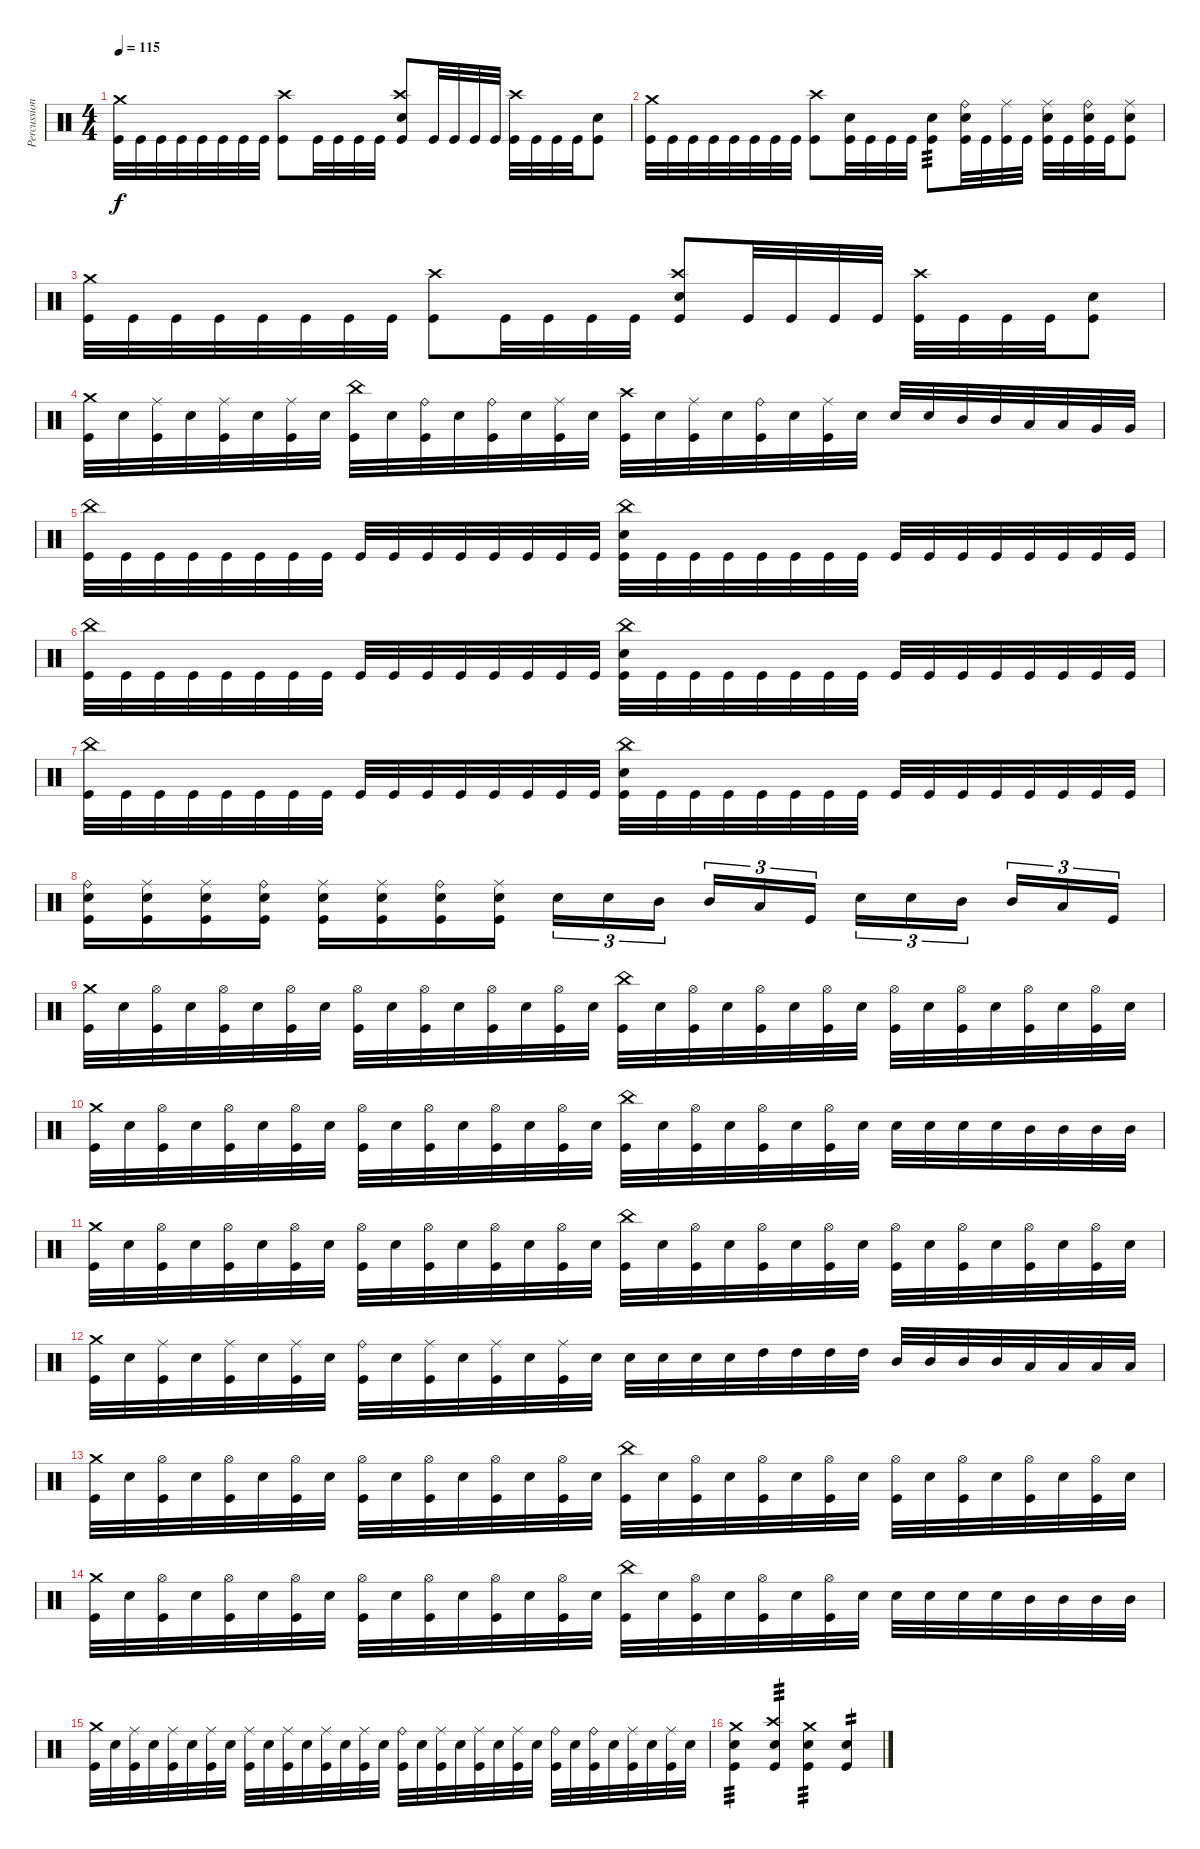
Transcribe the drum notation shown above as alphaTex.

\track ("Percussion" "Percussion") {instrument percussion}
\staff {score}
\articulation defaults
\ts (4 4)
\tempo 115
\clef neutral
\ks c
("Crash medium (hit)" "Kick (hit)").32{dy f} "Kick (hit)".32 "Kick (hit)".32 "Kick (hit)".32 "Kick (hit)".32 "Kick (hit)".32 "Kick (hit)".32 "Kick (hit)".32 ("Crash high (hit)" "Kick (hit)").8 "Kick (hit)".32 "Kick (hit)".32 "Kick (hit)".32 "Kick (hit)".32 ("Crash high (hit)" "Electric Snare (hit)" "Kick (hit)").8 "Kick (hit)".32 "Kick (hit)".32 "Kick (hit)".32 "Kick (hit)".32 ("Crash high (hit)" "Kick (hit)").32 "Kick (hit)".32 "Kick (hit)".32 "Kick (hit)".32 ("Electric Snare (hit)" "Kick (hit)").8 |
("Crash medium (hit)" "Kick (hit)").32 "Kick (hit)".32 "Kick (hit)".32 "Kick (hit)".32 "Kick (hit)".32 "Kick (hit)".32 "Kick (hit)".32 "Kick (hit)".32 ("Crash high (hit)" "Kick (hit)").8 ("Electric Snare (hit)" "Kick (hit)").32 "Kick (hit)".32 "Kick (hit)".32 "Kick (hit)".32 ("Electric Snare (hit)" "Kick (hit)").8{tp 3} ("Ride (bell)" "Electric Snare (hit)" "Kick (hit)").32 "Kick (hit)".32 ("Ride (middle)" "Kick (hit)").32 "Kick (hit)".32 ("Ride (middle)" "Electric Snare (hit)" "Kick (hit)").32 "Kick (hit)".32 ("Ride (bell)" "Electric Snare (hit)" "Kick (hit)").32 "Kick (hit)".32 ("Ride (middle)" "Electric Snare (hit)" "Kick (hit)").8 |
("Crash medium (hit)" "Kick (hit)").32 "Kick (hit)".32 "Kick (hit)".32 "Kick (hit)".32 "Kick (hit)".32 "Kick (hit)".32 "Kick (hit)".32 "Kick (hit)".32 ("Crash high (hit)" "Kick (hit)").8 "Kick (hit)".32 "Kick (hit)".32 "Kick (hit)".32 "Kick (hit)".32 ("Crash high (hit)" "Electric Snare (hit)" "Kick (hit)").8 "Kick (hit)".32 "Kick (hit)".32 "Kick (hit)".32 "Kick (hit)".32 ("Crash high (hit)" "Kick (hit)").32 "Kick (hit)".32 "Kick (hit)".32 "Kick (hit)".32 ("Electric Snare (hit)" "Kick (hit)").8 |
("Crash medium (hit)" "Kick (hit)").32 "Electric Snare (hit)".32 ("Ride (middle)" "Kick (hit)").32 "Electric Snare (hit)".32 ("Ride (middle)" "Kick (hit)").32 "Electric Snare (hit)".32 ("Ride (middle)" "Kick (hit)").32 "Electric Snare (hit)".32 ("China (hit)" "Kick (hit)").32 "Electric Snare (hit)".32 ("Ride (bell)" "Kick (hit)").32 "Electric Snare (hit)".32 ("Ride (bell)" "Kick (hit)").32 "Electric Snare (hit)".32 ("Ride (middle)" "Kick (hit)").32 "Electric Snare (hit)".32 ("Crash high (hit)" "Kick (hit)").32 "Electric Snare (hit)".32 ("Ride (middle)" "Kick (hit)").32 "Electric Snare (hit)".32 ("Ride (bell)" "Kick (hit)").32 "Electric Snare (hit)".32 ("Ride (middle)" "Kick (hit)").32 "Electric Snare (hit)".32 "Electric Snare (hit)".32 "Electric Snare (hit)".32 "Mid Tom (hit)".32 "Mid Tom (hit)".32 "Low Tom (hit)".32 "Low Tom (hit)".32 "Very Low Tom (hit)".32 "Very Low Tom (hit)".32 |
("China (hit)" "Kick (hit)").32 "Kick (hit)".32 "Kick (hit)".32 "Kick (hit)".32 "Kick (hit)".32 "Kick (hit)".32 "Kick (hit)".32 "Kick (hit)".32 "Kick (hit)".32 "Kick (hit)".32 "Kick (hit)".32 "Kick (hit)".32 "Kick (hit)".32 "Kick (hit)".32 "Kick (hit)".32 "Kick (hit)".32 ("China (hit)" "Electric Snare (hit)" "Kick (hit)").32 "Kick (hit)".32 "Kick (hit)".32 "Kick (hit)".32 "Kick (hit)".32 "Kick (hit)".32 "Kick (hit)".32 "Kick (hit)".32 "Kick (hit)".32 "Kick (hit)".32 "Kick (hit)".32 "Kick (hit)".32 "Kick (hit)".32 "Kick (hit)".32 "Kick (hit)".32 "Kick (hit)".32 |
("China (hit)" "Kick (hit)").32 "Kick (hit)".32 "Kick (hit)".32 "Kick (hit)".32 "Kick (hit)".32 "Kick (hit)".32 "Kick (hit)".32 "Kick (hit)".32 "Kick (hit)".32 "Kick (hit)".32 "Kick (hit)".32 "Kick (hit)".32 "Kick (hit)".32 "Kick (hit)".32 "Kick (hit)".32 "Kick (hit)".32 ("China (hit)" "Electric Snare (hit)" "Kick (hit)").32 "Kick (hit)".32 "Kick (hit)".32 "Kick (hit)".32 "Kick (hit)".32 "Kick (hit)".32 "Kick (hit)".32 "Kick (hit)".32 "Kick (hit)".32 "Kick (hit)".32 "Kick (hit)".32 "Kick (hit)".32 "Kick (hit)".32 "Kick (hit)".32 "Kick (hit)".32 "Kick (hit)".32 |
("China (hit)" "Kick (hit)").32 "Kick (hit)".32 "Kick (hit)".32 "Kick (hit)".32 "Kick (hit)".32 "Kick (hit)".32 "Kick (hit)".32 "Kick (hit)".32 "Kick (hit)".32 "Kick (hit)".32 "Kick (hit)".32 "Kick (hit)".32 "Kick (hit)".32 "Kick (hit)".32 "Kick (hit)".32 "Kick (hit)".32 ("China (hit)" "Electric Snare (hit)" "Kick (hit)").32 "Kick (hit)".32 "Kick (hit)".32 "Kick (hit)".32 "Kick (hit)".32 "Kick (hit)".32 "Kick (hit)".32 "Kick (hit)".32 "Kick (hit)".32 "Kick (hit)".32 "Kick (hit)".32 "Kick (hit)".32 "Kick (hit)".32 "Kick (hit)".32 "Kick (hit)".32 "Kick (hit)".32 |
("Ride (bell)" "Electric Snare (hit)" "Kick (hit)").16 ("Ride (middle)" "Electric Snare (hit)" "Kick (hit)").16 ("Ride (middle)" "Electric Snare (hit)" "Kick (hit)").16 ("Ride (bell)" "Electric Snare (hit)" "Kick (hit)").16 ("Ride (middle)" "Electric Snare (hit)" "Kick (hit)").16 ("Ride (middle)" "Electric Snare (hit)" "Kick (hit)").16 ("Ride (bell)" "Electric Snare (hit)" "Kick (hit)").16 ("Ride (middle)" "Electric Snare (hit)" "Kick (hit)").16 "Electric Snare (hit)".16{tu (3 2)} "Electric Snare (hit)".16{tu (3 2)} "Mid Tom (hit)".16{tu (3 2) beam splitsecondary} "Mid Tom (hit)".16{tu (3 2)} "Low Tom (hit)".16{tu (3 2)} "Kick (hit)".16{tu (3 2)} "Electric Snare (hit)".16{tu (3 2)} "Electric Snare (hit)".16{tu (3 2)} "Mid Tom (hit)".16{tu (3 2) beam splitsecondary} "Mid Tom (hit)".16{tu (3 2)} "Low Tom (hit)".16{tu (3 2)} "Kick (hit)".16{tu (3 2)} |
("Crash medium (hit)" "Kick (hit)").32 "Electric Snare (hit)".32 ("Hi-Hat (open)" "Kick (hit)").32 "Electric Snare (hit)".32 ("Hi-Hat (open)" "Kick (hit)").32 "Electric Snare (hit)".32 ("Hi-Hat (open)" "Kick (hit)").32 "Electric Snare (hit)".32 ("Hi-Hat (open)" "Kick (hit)").32 "Electric Snare (hit)".32 ("Hi-Hat (open)" "Kick (hit)").32 "Electric Snare (hit)".32 ("Hi-Hat (open)" "Kick (hit)").32 "Electric Snare (hit)".32 ("Hi-Hat (open)" "Kick (hit)").32 "Electric Snare (hit)".32 ("China (hit)" "Kick (hit)").32 "Electric Snare (hit)".32 ("Hi-Hat (open)" "Kick (hit)").32 "Electric Snare (hit)".32 ("Hi-Hat (open)" "Kick (hit)").32 "Electric Snare (hit)".32 ("Hi-Hat (open)" "Kick (hit)").32 "Electric Snare (hit)".32 ("Hi-Hat (open)" "Kick (hit)").32 "Electric Snare (hit)".32 ("Hi-Hat (open)" "Kick (hit)").32 "Electric Snare (hit)".32 ("Hi-Hat (open)" "Kick (hit)").32 "Electric Snare (hit)".32 ("Hi-Hat (open)" "Kick (hit)").32 "Electric Snare (hit)".32 |
("Crash medium (hit)" "Kick (hit)").32 "Electric Snare (hit)".32 ("Hi-Hat (open)" "Kick (hit)").32 "Electric Snare (hit)".32 ("Hi-Hat (open)" "Kick (hit)").32 "Electric Snare (hit)".32 ("Hi-Hat (open)" "Kick (hit)").32 "Electric Snare (hit)".32 ("Hi-Hat (open)" "Kick (hit)").32 "Electric Snare (hit)".32 ("Hi-Hat (open)" "Kick (hit)").32 "Electric Snare (hit)".32 ("Hi-Hat (open)" "Kick (hit)").32 "Electric Snare (hit)".32 ("Hi-Hat (open)" "Kick (hit)").32 "Electric Snare (hit)".32 ("China (hit)" "Kick (hit)").32 "Electric Snare (hit)".32 ("Hi-Hat (open)" "Kick (hit)").32 "Electric Snare (hit)".32 ("Hi-Hat (open)" "Kick (hit)").32 "Electric Snare (hit)".32 ("Hi-Hat (open)" "Kick (hit)").32 "Electric Snare (hit)".32 "Electric Snare (hit)".32 "Electric Snare (hit)".32 "Electric Snare (hit)".32 "Electric Snare (hit)".32 "Mid Tom (hit)".32 "Mid Tom (hit)".32 "Mid Tom (hit)".32 "Mid Tom (hit)".32 |
("Crash medium (hit)" "Kick (hit)").32 "Electric Snare (hit)".32 ("Hi-Hat (open)" "Kick (hit)").32 "Electric Snare (hit)".32 ("Hi-Hat (open)" "Kick (hit)").32 "Electric Snare (hit)".32 ("Hi-Hat (open)" "Kick (hit)").32 "Electric Snare (hit)".32 ("Hi-Hat (open)" "Kick (hit)").32 "Electric Snare (hit)".32 ("Hi-Hat (open)" "Kick (hit)").32 "Electric Snare (hit)".32 ("Hi-Hat (open)" "Kick (hit)").32 "Electric Snare (hit)".32 ("Hi-Hat (open)" "Kick (hit)").32 "Electric Snare (hit)".32 ("China (hit)" "Kick (hit)").32 "Electric Snare (hit)".32 ("Hi-Hat (open)" "Kick (hit)").32 "Electric Snare (hit)".32 ("Hi-Hat (open)" "Kick (hit)").32 "Electric Snare (hit)".32 ("Hi-Hat (open)" "Kick (hit)").32 "Electric Snare (hit)".32 ("Hi-Hat (open)" "Kick (hit)").32 "Electric Snare (hit)".32 ("Hi-Hat (open)" "Kick (hit)").32 "Electric Snare (hit)".32 ("Hi-Hat (open)" "Kick (hit)").32 "Electric Snare (hit)".32 ("Hi-Hat (open)" "Kick (hit)").32 "Electric Snare (hit)".32 |
("Crash medium (hit)" "Kick (hit)").32 "Electric Snare (hit)".32 ("Ride (middle)" "Kick (hit)").32 "Electric Snare (hit)".32 ("Ride (middle)" "Kick (hit)").32 "Electric Snare (hit)".32 ("Ride (middle)" "Kick (hit)").32 "Electric Snare (hit)".32 ("Ride (bell)" "Kick (hit)").32 "Electric Snare (hit)".32 ("Ride (middle)" "Kick (hit)").32 "Electric Snare (hit)".32 ("Ride (middle)" "Kick (hit)").32 "Electric Snare (hit)".32 ("Ride (middle)" "Kick (hit)").32 "Electric Snare (hit)".32 "Electric Snare (hit)".32 "Electric Snare (hit)".32 "Electric Snare (hit)".32 "Electric Snare (hit)".32 "High Tom (hit)".32 "High Tom (hit)".32 "High Tom (hit)".32 "High Tom (hit)".32 "Mid Tom (hit)".32 "Mid Tom (hit)".32 "Mid Tom (hit)".32 "Mid Tom (hit)".32 "Low Tom (hit)".32 "Low Tom (hit)".32 "Low Tom (hit)".32 "Low Tom (hit)".32 |
("Crash medium (hit)" "Kick (hit)").32 "Electric Snare (hit)".32 ("Hi-Hat (open)" "Kick (hit)").32 "Electric Snare (hit)".32 ("Hi-Hat (open)" "Kick (hit)").32 "Electric Snare (hit)".32 ("Hi-Hat (open)" "Kick (hit)").32 "Electric Snare (hit)".32 ("Hi-Hat (open)" "Kick (hit)").32 "Electric Snare (hit)".32 ("Hi-Hat (open)" "Kick (hit)").32 "Electric Snare (hit)".32 ("Hi-Hat (open)" "Kick (hit)").32 "Electric Snare (hit)".32 ("Hi-Hat (open)" "Kick (hit)").32 "Electric Snare (hit)".32 ("China (hit)" "Kick (hit)").32 "Electric Snare (hit)".32 ("Hi-Hat (open)" "Kick (hit)").32 "Electric Snare (hit)".32 ("Hi-Hat (open)" "Kick (hit)").32 "Electric Snare (hit)".32 ("Hi-Hat (open)" "Kick (hit)").32 "Electric Snare (hit)".32 ("Hi-Hat (open)" "Kick (hit)").32 "Electric Snare (hit)".32 ("Hi-Hat (open)" "Kick (hit)").32 "Electric Snare (hit)".32 ("Hi-Hat (open)" "Kick (hit)").32 "Electric Snare (hit)".32 ("Hi-Hat (open)" "Kick (hit)").32 "Electric Snare (hit)".32 |
("Crash medium (hit)" "Kick (hit)").32 "Electric Snare (hit)".32 ("Hi-Hat (open)" "Kick (hit)").32 "Electric Snare (hit)".32 ("Hi-Hat (open)" "Kick (hit)").32 "Electric Snare (hit)".32 ("Hi-Hat (open)" "Kick (hit)").32 "Electric Snare (hit)".32 ("Hi-Hat (open)" "Kick (hit)").32 "Electric Snare (hit)".32 ("Hi-Hat (open)" "Kick (hit)").32 "Electric Snare (hit)".32 ("Hi-Hat (open)" "Kick (hit)").32 "Electric Snare (hit)".32 ("Hi-Hat (open)" "Kick (hit)").32 "Electric Snare (hit)".32 ("China (hit)" "Kick (hit)").32 "Electric Snare (hit)".32 ("Hi-Hat (open)" "Kick (hit)").32 "Electric Snare (hit)".32 ("Hi-Hat (open)" "Kick (hit)").32 "Electric Snare (hit)".32 ("Hi-Hat (open)" "Kick (hit)").32 "Electric Snare (hit)".32 "Electric Snare (hit)".32 "Electric Snare (hit)".32 "Electric Snare (hit)".32 "Electric Snare (hit)".32 "Mid Tom (hit)".32 "Mid Tom (hit)".32 "Mid Tom (hit)".32 "Mid Tom (hit)".32 |
("Crash medium (hit)" "Kick (hit)").32 "Electric Snare (hit)".32 ("Ride (middle)" "Kick (hit)").32 "Electric Snare (hit)".32 ("Ride (middle)" "Kick (hit)").32 "Electric Snare (hit)".32 ("Ride (middle)" "Kick (hit)").32 "Electric Snare (hit)".32 ("Ride (middle)" "Kick (hit)").32 "Electric Snare (hit)".32 ("Ride (middle)" "Kick (hit)").32 "Electric Snare (hit)".32 ("Ride (middle)" "Kick (hit)").32 "Electric Snare (hit)".32 ("Ride (middle)" "Kick (hit)").32 "Electric Snare (hit)".32 ("Ride (bell)" "Kick (hit)").32 "Electric Snare (hit)".32 ("Ride (middle)" "Kick (hit)").32 "Electric Snare (hit)".32 ("Ride (middle)" "Kick (hit)").32 "Electric Snare (hit)".32 ("Ride (middle)" "Kick (hit)").32 "Electric Snare (hit)".32 ("Ride (bell)" "Kick (hit)").32 "Electric Snare (hit)".32 ("Ride (bell)" "Kick (hit)").32 "Electric Snare (hit)".32 ("Ride (middle)" "Kick (hit)").32 "Electric Snare (hit)".32 ("Ride (middle)" "Kick (hit)").32 "Electric Snare (hit)".32 |
("Crash medium (hit)" "Electric Snare (hit)" "Kick (hit)").4{tp 3} ("Crash high (hit)" "Electric Snare (hit)" "Kick (hit)").4{tp 3} ("Crash medium (hit)" "Electric Snare (hit)" "Kick (hit)").4{tp 3} ("Electric Snare (hit)" "Kick (hit)").4{tp 2}
